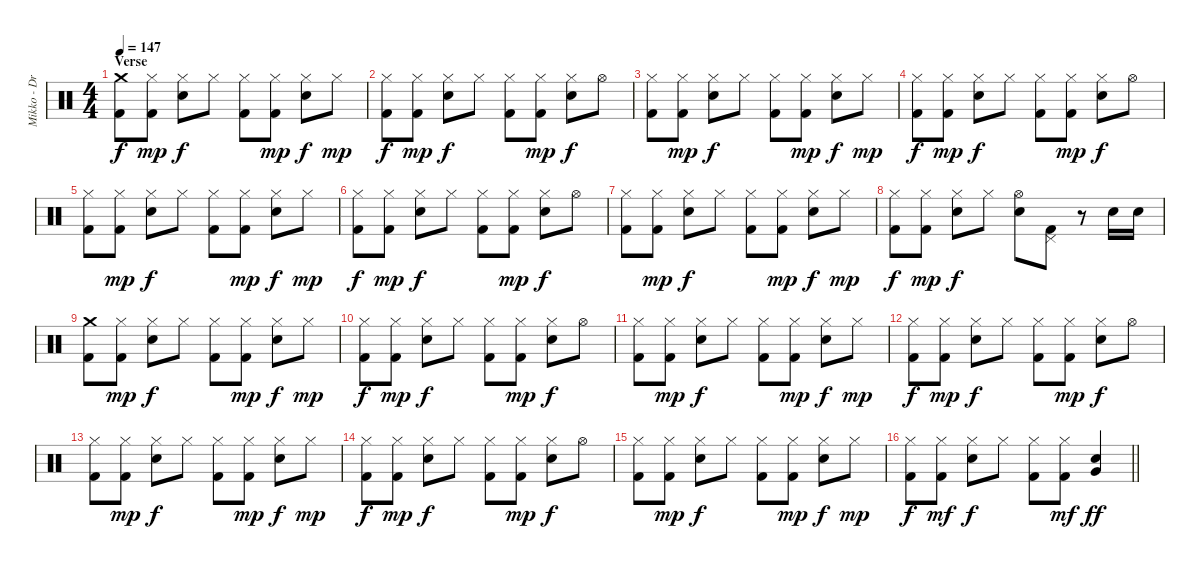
\track ("Mikko - Drums" "Mikko - Dr") {instrument percussion}
\staff {score}
\articulation defaults
\ts (4 4)
\section ("" "Verse")
\tempo 147
\clef neutral
\ks c
("Crash medium (hit)" "Kick (hit) 2").8{dy f} ("Hi-Hat (closed)" "Kick (hit) 2").8{dy mp} ("Hi-Hat (closed)" "Snare (hit) 2").8{dy f} "Hi-Hat (closed)".8 ("Hi-Hat (closed)" "Kick (hit) 2").8 ("Hi-Hat (closed)" "Kick (hit) 2").8{dy mp} ("Hi-Hat (closed)" "Snare (hit) 2").8{dy f} "Hi-Hat (closed)".8{dy mp} |
("Hi-Hat (closed)" "Kick (hit) 2").8{dy f} ("Hi-Hat (closed)" "Kick (hit) 2").8{dy mp} ("Hi-Hat (closed)" "Snare (hit) 2").8{dy f} "Hi-Hat (closed)".8 ("Hi-Hat (closed)" "Kick (hit) 2").8 ("Hi-Hat (closed)" "Kick (hit) 2").8{dy mp} ("Hi-Hat (closed)" "Snare (hit) 2").8{dy f} "Hi-Hat (open)".8 |
("Hi-Hat (closed)" "Kick (hit) 2").8 ("Hi-Hat (closed)" "Kick (hit) 2").8{dy mp} ("Hi-Hat (closed)" "Snare (hit) 2").8{dy f} "Hi-Hat (closed)".8 ("Hi-Hat (closed)" "Kick (hit) 2").8 ("Hi-Hat (closed)" "Kick (hit) 2").8{dy mp} ("Hi-Hat (closed)" "Snare (hit) 2").8{dy f} "Hi-Hat (closed)".8{dy mp} |
("Hi-Hat (closed)" "Kick (hit) 2").8{dy f} ("Hi-Hat (closed)" "Kick (hit) 2").8{dy mp} ("Hi-Hat (closed)" "Snare (hit) 2").8{dy f} "Hi-Hat (closed)".8 ("Hi-Hat (closed)" "Kick (hit) 2").8 ("Hi-Hat (closed)" "Kick (hit) 2").8{dy mp} ("Hi-Hat (closed)" "Snare (hit) 2").8{dy f} "Hi-Hat (open)".8 |
("Hi-Hat (closed)" "Kick (hit) 2").8 ("Hi-Hat (closed)" "Kick (hit) 2").8{dy mp} ("Hi-Hat (closed)" "Snare (hit) 2").8{dy f} "Hi-Hat (closed)".8 ("Hi-Hat (closed)" "Kick (hit) 2").8 ("Hi-Hat (closed)" "Kick (hit) 2").8{dy mp} ("Hi-Hat (closed)" "Snare (hit) 2").8{dy f} "Hi-Hat (closed)".8{dy mp} |
("Hi-Hat (closed)" "Kick (hit) 2").8{dy f} ("Hi-Hat (closed)" "Kick (hit) 2").8{dy mp} ("Hi-Hat (closed)" "Snare (hit) 2").8{dy f} "Hi-Hat (closed)".8 ("Hi-Hat (closed)" "Kick (hit) 2").8 ("Hi-Hat (closed)" "Kick (hit) 2").8{dy mp} ("Hi-Hat (closed)" "Snare (hit) 2").8{dy f} "Hi-Hat (open)".8 |
("Hi-Hat (closed)" "Kick (hit) 2").8 ("Hi-Hat (closed)" "Kick (hit) 2").8{dy mp} ("Hi-Hat (closed)" "Snare (hit) 2").8{dy f} "Hi-Hat (closed)".8 ("Hi-Hat (closed)" "Kick (hit) 2").8 ("Hi-Hat (closed)" "Kick (hit) 2").8{dy mp} ("Hi-Hat (closed)" "Snare (hit) 2").8{dy f} "Hi-Hat (closed)".8{dy mp} |
("Hi-Hat (closed)" "Kick (hit) 2").8{dy f} ("Hi-Hat (closed)" "Kick (hit) 2").8{dy mp} ("Hi-Hat (closed)" "Snare (hit) 2").8{dy f} "Hi-Hat (closed)".8 ("Hi-Hat (open)" "Snare (hit) 2").8 ("Pedal Hi-Hat (hit)" "Kick (hit) 2").8 r.8 "Snare (hit) 2".16 "Snare (hit) 2".16 |
("Crash medium (hit)" "Kick (hit) 2").8 ("Hi-Hat (closed)" "Kick (hit) 2").8{dy mp} ("Hi-Hat (closed)" "Snare (hit) 2").8{dy f} "Hi-Hat (closed)".8 ("Hi-Hat (closed)" "Kick (hit) 2").8 ("Hi-Hat (closed)" "Kick (hit) 2").8{dy mp} ("Hi-Hat (closed)" "Snare (hit) 2").8{dy f} "Hi-Hat (closed)".8{dy mp} |
("Hi-Hat (closed)" "Kick (hit) 2").8{dy f} ("Hi-Hat (closed)" "Kick (hit) 2").8{dy mp} ("Hi-Hat (closed)" "Snare (hit) 2").8{dy f} "Hi-Hat (closed)".8 ("Hi-Hat (closed)" "Kick (hit) 2").8 ("Hi-Hat (closed)" "Kick (hit) 2").8{dy mp} ("Hi-Hat (closed)" "Snare (hit) 2").8{dy f} "Hi-Hat (open)".8 |
("Hi-Hat (closed)" "Kick (hit) 2").8 ("Hi-Hat (closed)" "Kick (hit) 2").8{dy mp} ("Hi-Hat (closed)" "Snare (hit) 2").8{dy f} "Hi-Hat (closed)".8 ("Hi-Hat (closed)" "Kick (hit) 2").8 ("Hi-Hat (closed)" "Kick (hit) 2").8{dy mp} ("Hi-Hat (closed)" "Snare (hit) 2").8{dy f} "Hi-Hat (closed)".8{dy mp} |
("Hi-Hat (closed)" "Kick (hit) 2").8{dy f} ("Hi-Hat (closed)" "Kick (hit) 2").8{dy mp} ("Hi-Hat (closed)" "Snare (hit) 2").8{dy f} "Hi-Hat (closed)".8 ("Hi-Hat (closed)" "Kick (hit) 2").8 ("Hi-Hat (closed)" "Kick (hit) 2").8{dy mp} ("Hi-Hat (closed)" "Snare (hit) 2").8{dy f} "Hi-Hat (open)".8 |
("Hi-Hat (closed)" "Kick (hit) 2").8 ("Hi-Hat (closed)" "Kick (hit) 2").8{dy mp} ("Hi-Hat (closed)" "Snare (hit) 2").8{dy f} "Hi-Hat (closed)".8 ("Hi-Hat (closed)" "Kick (hit) 2").8 ("Hi-Hat (closed)" "Kick (hit) 2").8{dy mp} ("Hi-Hat (closed)" "Snare (hit) 2").8{dy f} "Hi-Hat (closed)".8{dy mp} |
("Hi-Hat (closed)" "Kick (hit) 2").8{dy f} ("Hi-Hat (closed)" "Kick (hit) 2").8{dy mp} ("Hi-Hat (closed)" "Snare (hit) 2").8{dy f} "Hi-Hat (closed)".8 ("Hi-Hat (closed)" "Kick (hit) 2").8 ("Hi-Hat (closed)" "Kick (hit) 2").8{dy mp} ("Hi-Hat (closed)" "Snare (hit) 2").8{dy f} "Hi-Hat (open)".8 |
("Hi-Hat (closed)" "Kick (hit) 2").8 ("Hi-Hat (closed)" "Kick (hit) 2").8{dy mp} ("Hi-Hat (closed)" "Snare (hit) 2").8{dy f} "Hi-Hat (closed)".8 ("Hi-Hat (closed)" "Kick (hit) 2").8 ("Hi-Hat (closed)" "Kick (hit) 2").8{dy mp} ("Hi-Hat (closed)" "Snare (hit) 2").8{dy f} "Hi-Hat (closed)".8{dy mp} |
\barLineRight lightlight
("Hi-Hat (closed)" "Kick (hit) 2").8{dy f} ("Hi-Hat (closed)" "Kick (hit) 2").8{dy mf} ("Hi-Hat (closed)" "Snare (hit) 2").8{dy f} "Hi-Hat (closed)".8 ("Hi-Hat (closed)" "Kick (hit) 2").8 ("Hi-Hat (closed)" "Kick (hit) 2").8{dy mf} ("Snare (hit) 2" "Very Low Tom (hit)").4{dy ff}
